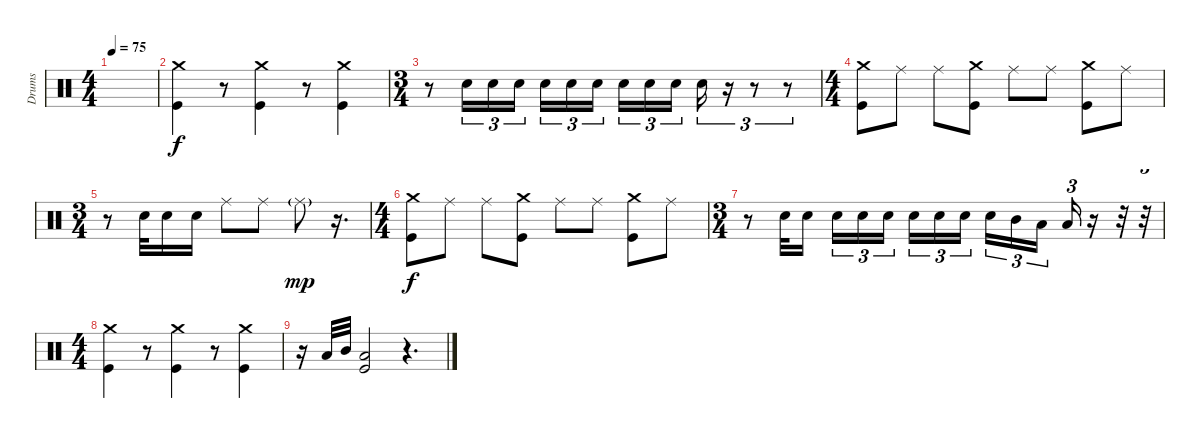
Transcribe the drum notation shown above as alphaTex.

\track ("Drums" "Drums") {instrument percussion}
\staff {score}
\articulation defaults
\ts (4 4)
\tempo 75
\clef neutral
\ks c
|
("Crash medium (hit)" "Kick (hit)").4 r.8 ("Crash medium (hit)" "Kick (hit)").4 r.8 ("Crash medium (hit)" "Kick (hit)").4 |
\ts (3 4)
r.8 "Electric Snare (hit)".16{tu (3 2)} "Electric Snare (hit)".16{tu (3 2)} "Electric Snare (hit)".16{tu (3 2)} "Electric Snare (hit)".16{tu (3 2)} "Electric Snare (hit)".16{tu (3 2)} "Electric Snare (hit)".16{tu (3 2) beam splitsecondary} "Electric Snare (hit)".16{tu (3 2)} "Electric Snare (hit)".16{tu (3 2)} "Electric Snare (hit)".16{tu (3 2)} "Electric Snare (hit)".16{tu (3 2)} r.16{tu (3 2)} r.8{tu (3 2)} r.8{tu (3 2)} |
\ts (4 4)
("Crash medium (hit)" "Kick (hit)").8 "Ride (middle)".8 "Ride (middle)".8 ("Crash medium (hit)" "Kick (hit)").8 "Ride (middle)".8 "Ride (middle)".8 ("Crash medium (hit)" "Kick (hit)").8 "Ride (middle)".8 |
\ts (3 4)
r.8 "Electric Snare (hit)".32 "Electric Snare (hit)".16 "Electric Snare (hit)".16 "Ride (middle)".8 "Ride (middle)".8 "Ride (middle)"{g}.8{dy mp} r.16{d} |
\ts (4 4)
("Crash medium (hit)" "Kick (hit)").8{dy f} "Ride (middle)".8 "Ride (middle)".8 ("Crash medium (hit)" "Kick (hit)").8 "Ride (middle)".8 "Ride (middle)".8 ("Crash medium (hit)" "Kick (hit)").8 "Ride (middle)".8 |
\ts (3 4)
r.8 "Electric Snare (hit)".32 "Electric Snare (hit)".16{beam splitsecondary} "Electric Snare (hit)".16{tu (3 2)} "Electric Snare (hit)".16{tu (3 2)} "Electric Snare (hit)".16{tu (3 2) beam splitsecondary} "Electric Snare (hit)".16{tu (3 2)} "Electric Snare (hit)".16{tu (3 2)} "Electric Snare (hit)".16{tu (3 2) beam splitsecondary} "Electric Snare (hit)".16{tu (3 2)} "Mid Tom (hit)".16{tu (3 2)} "Low Tom (hit)".16{tu (3 2) beam splitsecondary} "Low Tom (hit)".16{tu (3 2)} r.16 r.32 r.32{tu (3 2)} |
\ts (4 4)
("Crash medium (hit)" "Kick (hit)").4 r.8 ("Crash medium (hit)" "Kick (hit)").4 r.8 ("Crash medium (hit)" "Kick (hit)").4 |
r.16 "Low Tom (hit)".32 "Mid Tom (hit)".32 ("Low Floor Tom (hit)" "Kick (hit)").2 r.4{d}
